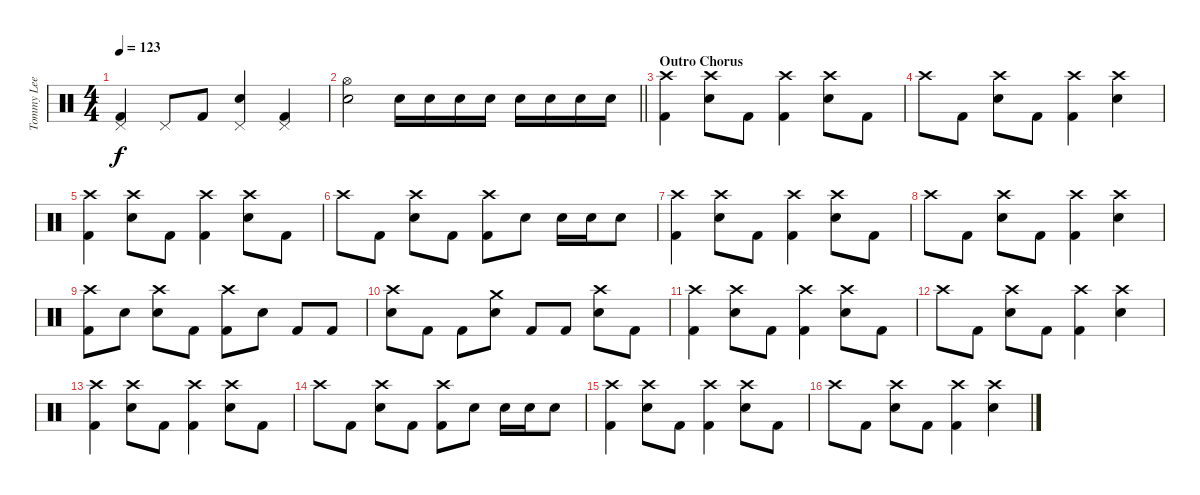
\track ("Tommy Lee" "Tommy Lee") {instrument percussion}
\staff {score}
\articulation defaults
\ts (4 4)
\tempo 123
\clef neutral
\ks c
("Pedal Hi-Hat (hit)" "Kick (hit) 2").4{dy f} "Pedal Hi-Hat (hit)".8 "Kick (hit) 2".8 ("Pedal Hi-Hat (hit)" "Snare (hit) 2").4 ("Pedal Hi-Hat (hit)" "Kick (hit) 2").4 |
\barLineRight lightlight
("Hi-Hat (open)" "Snare (hit) 2").2 "Snare (hit) 2".16 "Snare (hit) 2".16 "Snare (hit) 2".16 "Snare (hit) 2".16 "Snare (hit) 2".16 "Snare (hit) 2".16 "Snare (hit) 2".16 "Snare (hit) 2".16 |
\section ("" "Outro Chorus")
("Crash high (hit)" "Kick (hit) 2").4 ("Crash high (hit)" "Snare (hit) 2").8 "Kick (hit) 2".8 ("Crash high (hit)" "Kick (hit) 2").4 ("Crash high (hit)" "Snare (hit) 2").8 "Kick (hit) 2".8 |
"Crash high (hit)".8 "Kick (hit) 2".8 ("Crash high (hit)" "Snare (hit) 2").8 "Kick (hit) 2".8 ("Crash high (hit)" "Kick (hit) 2").4 ("Crash high (hit)" "Snare (hit) 2").4 |
("Crash high (hit)" "Kick (hit) 2").4 ("Crash high (hit)" "Snare (hit) 2").8 "Kick (hit) 2".8 ("Crash high (hit)" "Kick (hit) 2").4 ("Crash high (hit)" "Snare (hit) 2").8 "Kick (hit) 2".8 |
"Crash high (hit)".8 "Kick (hit) 2".8 ("Crash high (hit)" "Snare (hit) 2").8 "Kick (hit) 2".8 ("Crash high (hit)" "Kick (hit) 2").8 "Snare (hit) 2".8 "Snare (hit) 2".16 "Snare (hit) 2".16 "Snare (hit) 2".8 |
("Crash high (hit)" "Kick (hit) 2").4 ("Crash high (hit)" "Snare (hit) 2").8 "Kick (hit) 2".8 ("Crash high (hit)" "Kick (hit) 2").4 ("Crash high (hit)" "Snare (hit) 2").8 "Kick (hit) 2".8 |
"Crash high (hit)".8 "Kick (hit) 2".8 ("Crash high (hit)" "Snare (hit) 2").8 "Kick (hit) 2".8 ("Crash high (hit)" "Kick (hit) 2").4 ("Crash high (hit)" "Snare (hit) 2").4 |
("Crash high (hit)" "Kick (hit) 2").8 "Snare (hit) 2".8 ("Crash high (hit)" "Snare (hit) 2").8 "Kick (hit) 2".8 ("Crash high (hit)" "Kick (hit) 2").8 "Snare (hit) 2".8 "Kick (hit) 2".8 "Kick (hit) 2".8 |
("Crash high (hit)" "Snare (hit) 2").8 "Kick (hit) 2".8 "Kick (hit) 2".8 ("Crash medium (hit)" "Snare (hit) 2").8 "Kick (hit) 2".8 "Kick (hit) 2".8 ("Crash high (hit)" "Snare (hit) 2").8 "Kick (hit) 2".8 |
("Crash high (hit)" "Kick (hit) 2").4 ("Crash high (hit)" "Snare (hit) 2").8 "Kick (hit) 2".8 ("Crash high (hit)" "Kick (hit) 2").4 ("Crash high (hit)" "Snare (hit) 2").8 "Kick (hit) 2".8 |
"Crash high (hit)".8 "Kick (hit) 2".8 ("Crash high (hit)" "Snare (hit) 2").8 "Kick (hit) 2".8 ("Crash high (hit)" "Kick (hit) 2").4 ("Crash high (hit)" "Snare (hit) 2").4 |
("Crash high (hit)" "Kick (hit) 2").4 ("Crash high (hit)" "Snare (hit) 2").8 "Kick (hit) 2".8 ("Crash high (hit)" "Kick (hit) 2").4 ("Crash high (hit)" "Snare (hit) 2").8 "Kick (hit) 2".8 |
"Crash high (hit)".8 "Kick (hit) 2".8 ("Crash high (hit)" "Snare (hit) 2").8 "Kick (hit) 2".8 ("Crash high (hit)" "Kick (hit) 2").8 "Snare (hit) 2".8 "Snare (hit) 2".16 "Snare (hit) 2".16 "Snare (hit) 2".8 |
("Crash high (hit)" "Kick (hit) 2").4 ("Crash high (hit)" "Snare (hit) 2").8 "Kick (hit) 2".8 ("Crash high (hit)" "Kick (hit) 2").4 ("Crash high (hit)" "Snare (hit) 2").8 "Kick (hit) 2".8 |
"Crash high (hit)".8 "Kick (hit) 2".8 ("Crash high (hit)" "Snare (hit) 2").8 "Kick (hit) 2".8 ("Crash high (hit)" "Kick (hit) 2").4 ("Crash high (hit)" "Snare (hit) 2").4
